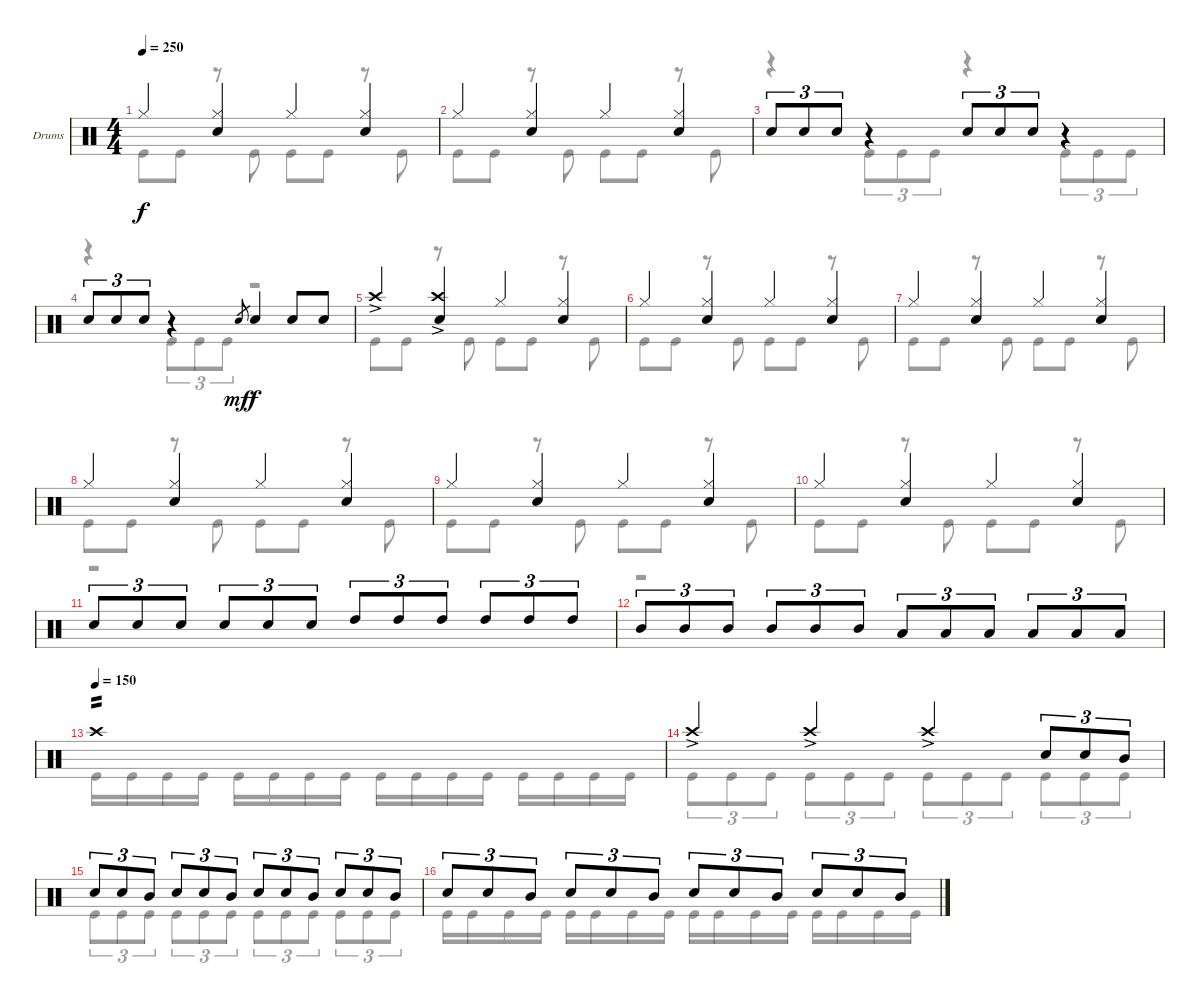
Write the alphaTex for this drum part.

\bracketExtendMode groupsimilarinstruments
\firstSystemTrackNameOrientation horizontal
\otherSystemsTrackNameOrientation horizontal
\track ("Drumkit" "Drums") {instrument percussion}
\staff {score}
\articulation defaults
\voice
\ts (4 4)
\tempo 250
\clef neutral
\ks c "Hi-Hat (closed)".4{dy f}
("Hi-Hat (closed)" "Snare (hit) 2").4 "Hi-Hat (closed)".4 ("Hi-Hat (closed)" "Snare (hit) 2").4 |
"Hi-Hat (closed)".4 ("Hi-Hat (closed)" "Snare (hit) 2").4 "Hi-Hat (closed)".4 ("Hi-Hat (closed)" "Snare (hit) 2").4 |
"Snare (hit) 2".8{tu (3 2)} "Snare (hit) 2".8{tu (3 2)} "Snare (hit) 2".8{tu (3 2)} r.4 "Snare (hit) 2".8{tu (3 2)} "Snare (hit) 2".8{tu (3 2)} "Snare (hit) 2".8{tu (3 2)} r.4 |
"Snare (hit) 2".8{tu (3 2)} "Snare (hit) 2".8{tu (3 2)} "Snare (hit) 2".8{tu (3 2)} r.4 "Snare (hit) 2".8{gr dy mf} "Snare (hit) 2".4{dy f} "Snare (hit) 2".8 "Snare (hit) 2".8 |
"Crash high (hit)"{ac}.4 ("Crash high (hit)"{ac} "Snare (hit) 2").4 "Hi-Hat (closed)".4 ("Hi-Hat (closed)" "Snare (hit) 2").4 |
"Hi-Hat (closed)".4 ("Hi-Hat (closed)" "Snare (hit) 2").4 "Hi-Hat (closed)".4 ("Hi-Hat (closed)" "Snare (hit) 2").4 |
"Hi-Hat (closed)".4 ("Hi-Hat (closed)" "Snare (hit) 2").4 "Hi-Hat (closed)".4 ("Hi-Hat (closed)" "Snare (hit) 2").4 |
"Hi-Hat (closed)".4 ("Hi-Hat (closed)" "Snare (hit) 2").4 "Hi-Hat (closed)".4 ("Hi-Hat (closed)" "Snare (hit) 2").4 |
"Hi-Hat (closed)".4 ("Hi-Hat (closed)" "Snare (hit) 2").4 "Hi-Hat (closed)".4 ("Hi-Hat (closed)" "Snare (hit) 2").4 |
"Hi-Hat (closed)".4 ("Hi-Hat (closed)" "Snare (hit) 2").4 "Hi-Hat (closed)".4 ("Hi-Hat (closed)" "Snare (hit) 2").4 |
"Snare (hit) 2".8{tu (3 2)} "Snare (hit) 2".8{tu (3 2)} "Snare (hit) 2".8{tu (3 2)} "Snare (hit) 2".8{tu (3 2)} "Snare (hit) 2".8{tu (3 2)} "Snare (hit) 2".8{tu (3 2)} "High Tom (hit)".8{tu (3 2)} "High Tom (hit)".8{tu (3 2)} "High Tom (hit)".8{tu (3 2)} "High Tom (hit)".8{tu (3 2)} "High Tom (hit)".8{tu (3 2)} "High Tom (hit)".8{tu (3 2)} |
"Mid Tom (hit)".8{tu (3 2)} "Mid Tom (hit)".8{tu (3 2)} "Mid Tom (hit)".8{tu (3 2)} "Mid Tom (hit)".8{tu (3 2)} "Mid Tom (hit)".8{tu (3 2)} "Mid Tom (hit)".8{tu (3 2)} "Low Tom (hit)".8{tu (3 2)} "Low Tom (hit)".8{tu (3 2)} "Low Tom (hit)".8{tu (3 2)} "Low Tom (hit)".8{tu (3 2)} "Low Tom (hit)".8{tu (3 2)} "Low Tom (hit)".8{tu (3 2)} |
\tempo (150)
"Crash high (hit)".1{tp 2} |
"Crash high (hit)"{ac}.4 "Crash high (hit)"{ac}.4 "Crash high (hit)"{ac}.4 "Snare (hit) 2".8{tu (3 2)} "Snare (hit) 2".8{tu (3 2)} "Mid Tom (hit)".8{tu (3 2)} |
"Snare (hit) 2".8{tu (3 2)} "Snare (hit) 2".8{tu (3 2)} "Mid Tom (hit)".8{tu (3 2)} "Snare (hit) 2".8{tu (3 2)} "Snare (hit) 2".8{tu (3 2)} "Mid Tom (hit)".8{tu (3 2)} "Snare (hit) 2".8{tu (3 2)} "Snare (hit) 2".8{tu (3 2)} "Mid Tom (hit)".8{tu (3 2)} "Snare (hit) 2".8{tu (3 2)} "Snare (hit) 2".8{tu (3 2)} "Mid Tom (hit)".8{tu (3 2)} |
"Snare (hit) 2".8{tu (3 2)} "Snare (hit) 2".8{tu (3 2)} "Mid Tom (hit)".8{tu (3 2)} "Snare (hit) 2".8{tu (3 2)} "Snare (hit) 2".8{tu (3 2)} "Mid Tom (hit)".8{tu (3 2)} "Snare (hit) 2".8{tu (3 2)} "Snare (hit) 2".8{tu (3 2)} "Mid Tom (hit)".8{tu (3 2)} "Snare (hit) 2".8{tu (3 2)} "Snare (hit) 2".8{tu (3 2)} "Mid Tom (hit)".8{tu (3 2)}
\voice
\clef neutral
\ottava regular
\simile none
\ks c "Kick (hit)".8{dy f} "Kick (hit)".8
r.8 "Kick (hit)".8 "Kick (hit)".8 "Kick (hit)".8 r.8 "Kick (hit)".8 |
"Kick (hit)".8 "Kick (hit)".8 r.8 "Kick (hit)".8 "Kick (hit)".8 "Kick (hit)".8 r.8 "Kick (hit)".8 |
r.4 "Kick (hit)".8{tu (3 2)} "Kick (hit)".8{tu (3 2)} "Kick (hit)".8{tu (3 2)} r.4 "Kick (hit)".8{tu (3 2)} "Kick (hit)".8{tu (3 2)} "Kick (hit)".8{tu (3 2)} |
r.4 "Kick (hit)".8{tu (3 2)} "Kick (hit)".8{tu (3 2)} "Kick (hit)".8{tu (3 2)} r.2 |
"Kick (hit)".8 "Kick (hit)".8 r.8 "Kick (hit)".8 "Kick (hit)".8 "Kick (hit)".8 r.8 "Kick (hit)".8 |
"Kick (hit)".8 "Kick (hit)".8 r.8 "Kick (hit)".8 "Kick (hit)".8 "Kick (hit)".8 r.8 "Kick (hit)".8 |
"Kick (hit)".8 "Kick (hit)".8 r.8 "Kick (hit)".8 "Kick (hit)".8 "Kick (hit)".8 r.8 "Kick (hit)".8 |
"Kick (hit)".8 "Kick (hit)".8 r.8 "Kick (hit)".8 "Kick (hit)".8 "Kick (hit)".8 r.8 "Kick (hit)".8 |
"Kick (hit)".8 "Kick (hit)".8 r.8 "Kick (hit)".8 "Kick (hit)".8 "Kick (hit)".8 r.8 "Kick (hit)".8 |
"Kick (hit)".8 "Kick (hit)".8 r.8 "Kick (hit)".8 "Kick (hit)".8 "Kick (hit)".8 r.8 "Kick (hit)".8 |
r.1 |
r.1 |
"Kick (hit)".16 "Kick (hit)".16 "Kick (hit)".16 "Kick (hit)".16 "Kick (hit)".16 "Kick (hit)".16 "Kick (hit)".16 "Kick (hit)".16 "Kick (hit)".16 "Kick (hit)".16 "Kick (hit)".16 "Kick (hit)".16 "Kick (hit)".16 "Kick (hit)".16 "Kick (hit)".16 "Kick (hit)".16 |
"Kick (hit)".8{tu (3 2)} "Kick (hit)".8{tu (3 2)} "Kick (hit)".8{tu (3 2)} "Kick (hit)".8{tu (3 2)} "Kick (hit)".8{tu (3 2)} "Kick (hit)".8{tu (3 2)} "Kick (hit)".8{tu (3 2)} "Kick (hit)".8{tu (3 2)} "Kick (hit)".8{tu (3 2)} "Kick (hit)".8{tu (3 2)} "Kick (hit)".8{tu (3 2)} "Kick (hit)".8{tu (3 2)} |
"Kick (hit)".8{tu (3 2)} "Kick (hit)".8{tu (3 2)} "Kick (hit)".8{tu (3 2)} "Kick (hit)".8{tu (3 2)} "Kick (hit)".8{tu (3 2)} "Kick (hit)".8{tu (3 2)} "Kick (hit)".8{tu (3 2)} "Kick (hit)".8{tu (3 2)} "Kick (hit)".8{tu (3 2)} "Kick (hit)".8{tu (3 2)} "Kick (hit)".8{tu (3 2)} "Kick (hit)".8{tu (3 2)} |
"Kick (hit)".16 "Kick (hit)".16 "Kick (hit)".16 "Kick (hit)".16 "Kick (hit)".16 "Kick (hit)".16 "Kick (hit)".16 "Kick (hit)".16 "Kick (hit)".16 "Kick (hit)".16 "Kick (hit)".16 "Kick (hit)".16 "Kick (hit)".16 "Kick (hit)".16 "Kick (hit)".16 "Kick (hit)".16
